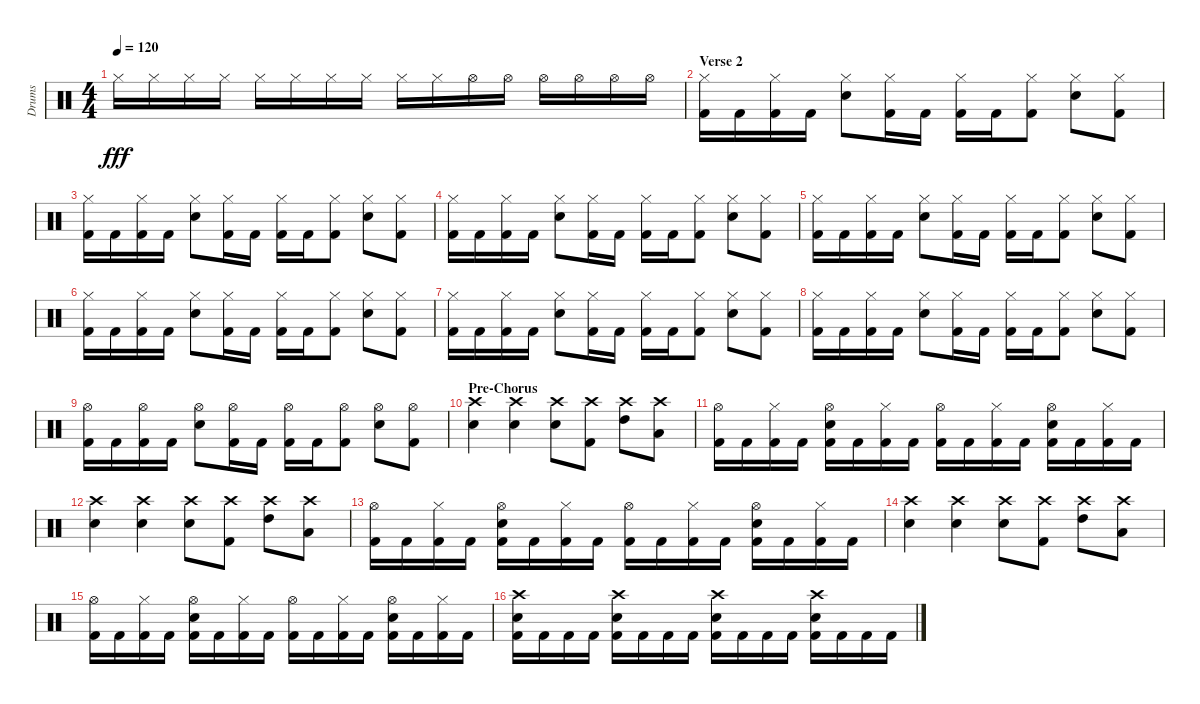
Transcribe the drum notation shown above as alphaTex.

\track ("Drums" "Drums") {instrument percussion}
\staff {score}
\articulation defaults
\ts (4 4)
\tempo 120
\clef neutral
\ks c "Hi-Hat (closed)".16{dy fff} "Hi-Hat (closed)".16 "Hi-Hat (closed)".16 "Hi-Hat (closed)".16 "Hi-Hat (closed)".16 "Hi-Hat (closed)".16 "Hi-Hat (closed)".16 "Hi-Hat (closed)".16 "Hi-Hat (closed)".16 "Hi-Hat (closed)".16 "Hi-Hat (open)".16 "Hi-Hat (open)".16 "Hi-Hat (open)".16 "Hi-Hat (open)".16 "Hi-Hat (open)".16 "Hi-Hat (open)".16
|
\section ("" "Verse 2")
("Hi-Hat (closed)" "Kick (hit) 2").16 "Kick (hit) 2".16 ("Hi-Hat (closed)" "Kick (hit) 2").16 "Kick (hit) 2".16 ("Hi-Hat (closed)" "Electric Snare (hit)").8 ("Hi-Hat (closed)" "Kick (hit) 2").16 "Kick (hit) 2".16 ("Hi-Hat (closed)" "Kick (hit) 2").16 "Kick (hit) 2".16 ("Hi-Hat (closed)" "Kick (hit) 2").8 ("Hi-Hat (closed)" "Electric Snare (hit)").8 ("Hi-Hat (closed)" "Kick (hit) 2").8 |
("Hi-Hat (closed)" "Kick (hit) 2").16 "Kick (hit) 2".16 ("Hi-Hat (closed)" "Kick (hit) 2").16 "Kick (hit) 2".16 ("Hi-Hat (closed)" "Electric Snare (hit)").8 ("Hi-Hat (closed)" "Kick (hit) 2").16 "Kick (hit) 2".16 ("Hi-Hat (closed)" "Kick (hit) 2").16 "Kick (hit) 2".16 ("Hi-Hat (closed)" "Kick (hit) 2").8 ("Hi-Hat (closed)" "Electric Snare (hit)").8 ("Hi-Hat (closed)" "Kick (hit) 2").8 |
("Hi-Hat (closed)" "Kick (hit) 2").16 "Kick (hit) 2".16 ("Hi-Hat (closed)" "Kick (hit) 2").16 "Kick (hit) 2".16 ("Hi-Hat (closed)" "Electric Snare (hit)").8 ("Hi-Hat (closed)" "Kick (hit) 2").16 "Kick (hit) 2".16 ("Hi-Hat (closed)" "Kick (hit) 2").16 "Kick (hit) 2".16 ("Hi-Hat (closed)" "Kick (hit) 2").8 ("Hi-Hat (closed)" "Electric Snare (hit)").8 ("Hi-Hat (closed)" "Kick (hit) 2").8 |
("Hi-Hat (closed)" "Kick (hit) 2").16 "Kick (hit) 2".16 ("Hi-Hat (closed)" "Kick (hit) 2").16 "Kick (hit) 2".16 ("Hi-Hat (closed)" "Electric Snare (hit)").8 ("Hi-Hat (closed)" "Kick (hit) 2").16 "Kick (hit) 2".16 ("Hi-Hat (closed)" "Kick (hit) 2").16 "Kick (hit) 2".16 ("Hi-Hat (closed)" "Kick (hit) 2").8 ("Hi-Hat (closed)" "Electric Snare (hit)").8 ("Hi-Hat (closed)" "Kick (hit) 2").8 |
("Hi-Hat (closed)" "Kick (hit) 2").16 "Kick (hit) 2".16 ("Hi-Hat (closed)" "Kick (hit) 2").16 "Kick (hit) 2".16 ("Hi-Hat (closed)" "Electric Snare (hit)").8 ("Hi-Hat (closed)" "Kick (hit) 2").16 "Kick (hit) 2".16 ("Hi-Hat (closed)" "Kick (hit) 2").16 "Kick (hit) 2".16 ("Hi-Hat (closed)" "Kick (hit) 2").8 ("Hi-Hat (closed)" "Electric Snare (hit)").8 ("Hi-Hat (closed)" "Kick (hit) 2").8 |
("Hi-Hat (closed)" "Kick (hit) 2").16 "Kick (hit) 2".16 ("Hi-Hat (closed)" "Kick (hit) 2").16 "Kick (hit) 2".16 ("Hi-Hat (closed)" "Electric Snare (hit)").8 ("Hi-Hat (closed)" "Kick (hit) 2").16 "Kick (hit) 2".16 ("Hi-Hat (closed)" "Kick (hit) 2").16 "Kick (hit) 2".16 ("Hi-Hat (closed)" "Kick (hit) 2").8 ("Hi-Hat (closed)" "Electric Snare (hit)").8 ("Hi-Hat (closed)" "Kick (hit) 2").8 |
("Hi-Hat (closed)" "Kick (hit) 2").16 "Kick (hit) 2".16 ("Hi-Hat (closed)" "Kick (hit) 2").16 "Kick (hit) 2".16 ("Hi-Hat (closed)" "Electric Snare (hit)").8 ("Hi-Hat (closed)" "Kick (hit) 2").16 "Kick (hit) 2".16 ("Hi-Hat (closed)" "Kick (hit) 2").16 "Kick (hit) 2".16 ("Hi-Hat (closed)" "Kick (hit) 2").8 ("Hi-Hat (closed)" "Electric Snare (hit)").8 ("Hi-Hat (closed)" "Kick (hit) 2").8 |
("Hi-Hat (open)" "Kick (hit) 2").16 "Kick (hit) 2".16 ("Hi-Hat (open)" "Kick (hit) 2").16 "Kick (hit) 2".16 ("Hi-Hat (open)" "Electric Snare (hit)").8 ("Hi-Hat (open)" "Kick (hit) 2").16 "Kick (hit) 2".16 ("Hi-Hat (open)" "Kick (hit) 2").16 "Kick (hit) 2".16 ("Hi-Hat (open)" "Kick (hit) 2").8 ("Hi-Hat (open)" "Electric Snare (hit)").8 ("Hi-Hat (open)" "Kick (hit) 2").8 |
\section ("" "Pre-Chorus")
("Crash high (hit)" "Electric Snare (hit)").4 ("Crash high (hit)" "Electric Snare (hit)").4 ("Crash high (hit)" "Electric Snare (hit)").8 ("Crash high (hit)" "Kick (hit) 2").8 ("Crash high (hit)" "High Tom (hit)").8 ("Crash high (hit)" "Low Tom (hit)").8 |
("Hi-Hat (open)" "Kick (hit) 2").16 "Kick (hit) 2".16 ("Hi-Hat (closed)" "Kick (hit) 2").16 "Kick (hit) 2".16 ("Hi-Hat (open)" "Electric Snare (hit)" "Kick (hit) 2").16 "Kick (hit) 2".16 ("Hi-Hat (closed)" "Kick (hit) 2").16 "Kick (hit) 2".16 ("Hi-Hat (open)" "Kick (hit) 2").16 "Kick (hit) 2".16 ("Hi-Hat (closed)" "Kick (hit) 2").16 "Kick (hit) 2".16 ("Hi-Hat (open)" "Electric Snare (hit)" "Kick (hit) 2").16 "Kick (hit) 2".16 ("Hi-Hat (closed)" "Kick (hit) 2").16 "Kick (hit) 2".16 |
("Crash high (hit)" "Electric Snare (hit)").4 ("Crash high (hit)" "Electric Snare (hit)").4 ("Crash high (hit)" "Electric Snare (hit)").8 ("Crash high (hit)" "Kick (hit) 2").8 ("Crash high (hit)" "High Tom (hit)").8 ("Crash high (hit)" "Low Tom (hit)").8 |
("Hi-Hat (open)" "Kick (hit) 2").16 "Kick (hit) 2".16 ("Hi-Hat (closed)" "Kick (hit) 2").16 "Kick (hit) 2".16 ("Hi-Hat (open)" "Electric Snare (hit)" "Kick (hit) 2").16 "Kick (hit) 2".16 ("Hi-Hat (closed)" "Kick (hit) 2").16 "Kick (hit) 2".16 ("Hi-Hat (open)" "Kick (hit) 2").16 "Kick (hit) 2".16 ("Hi-Hat (closed)" "Kick (hit) 2").16 "Kick (hit) 2".16 ("Hi-Hat (open)" "Electric Snare (hit)" "Kick (hit) 2").16 "Kick (hit) 2".16 ("Hi-Hat (closed)" "Kick (hit) 2").16 "Kick (hit) 2".16 |
("Crash high (hit)" "Electric Snare (hit)").4 ("Crash high (hit)" "Electric Snare (hit)").4 ("Crash high (hit)" "Electric Snare (hit)").8 ("Crash high (hit)" "Kick (hit) 2").8 ("Crash high (hit)" "High Tom (hit)").8 ("Crash high (hit)" "Low Tom (hit)").8 |
("Hi-Hat (open)" "Kick (hit) 2").16 "Kick (hit) 2".16 ("Hi-Hat (closed)" "Kick (hit) 2").16 "Kick (hit) 2".16 ("Hi-Hat (open)" "Electric Snare (hit)" "Kick (hit) 2").16 "Kick (hit) 2".16 ("Hi-Hat (closed)" "Kick (hit) 2").16 "Kick (hit) 2".16 ("Hi-Hat (open)" "Kick (hit) 2").16 "Kick (hit) 2".16 ("Hi-Hat (closed)" "Kick (hit) 2").16 "Kick (hit) 2".16 ("Hi-Hat (open)" "Electric Snare (hit)" "Kick (hit) 2").16 "Kick (hit) 2".16 ("Hi-Hat (closed)" "Kick (hit) 2").16 "Kick (hit) 2".16 |
("Crash high (hit)" "Electric Snare (hit)" "Kick (hit) 2").16 "Kick (hit) 2".16 "Kick (hit) 2".16 "Kick (hit) 2".16 ("Crash high (hit)" "Electric Snare (hit)" "Kick (hit) 2").16 "Kick (hit) 2".16 "Kick (hit) 2".16 "Kick (hit) 2".16 ("Crash high (hit)" "Electric Snare (hit)" "Kick (hit) 2").16 "Kick (hit) 2".16 "Kick (hit) 2".16 "Kick (hit) 2".16 ("Crash high (hit)" "Electric Snare (hit)" "Kick (hit) 2").16 "Kick (hit) 2".16 "Kick (hit) 2".16 "Kick (hit) 2".16
